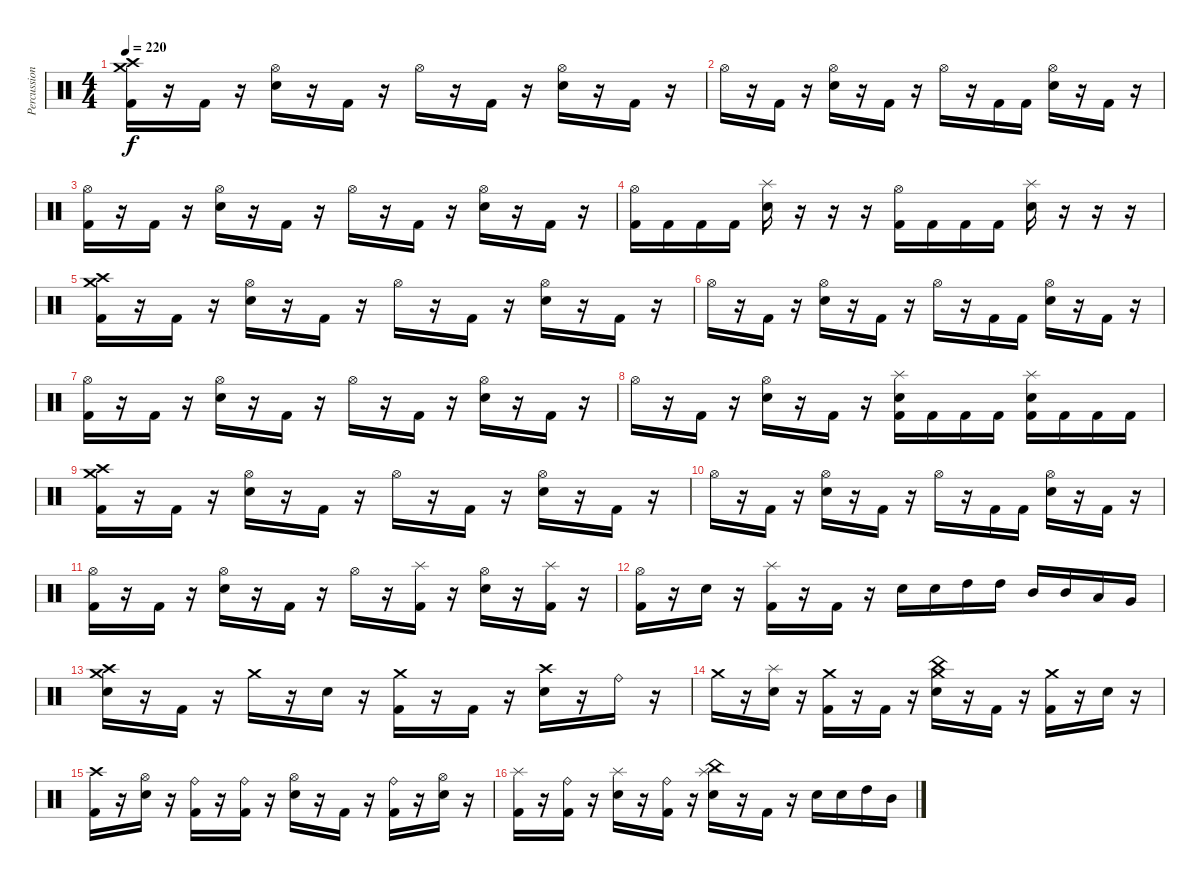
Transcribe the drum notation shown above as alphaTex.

\track ("Percussion" "Percussion") {instrument percussion}
\staff {score}
\articulation defaults
\ts (4 4)
\tempo 220
\clef neutral
\ks c
("Crash high (hit)" "Crash medium (hit)" "Kick (hit) 2").16{dy f} r.16 "Kick (hit) 2".16 r.16 ("Hi-Hat (open)" "Electric Snare (hit)").16 r.16 "Kick (hit) 2".16 r.16 "Hi-Hat (open)".16 r.16 "Kick (hit) 2".16 r.16 ("Hi-Hat (open)" "Electric Snare (hit)").16 r.16 "Kick (hit) 2".16 r.16 |
"Hi-Hat (open)".16 r.16 "Kick (hit) 2".16 r.16 ("Hi-Hat (open)" "Electric Snare (hit)").16 r.16 "Kick (hit) 2".16 r.16 "Hi-Hat (open)".16 r.16 "Kick (hit) 2".16 "Kick (hit) 2".16 ("Hi-Hat (open)" "Electric Snare (hit)").16 r.16 "Kick (hit) 2".16 r.16 |
("Hi-Hat (open)" "Kick (hit) 2").16 r.16 "Kick (hit) 2".16 r.16 ("Hi-Hat (open)" "Electric Snare (hit)").16 r.16 "Kick (hit) 2".16 r.16 "Hi-Hat (open)".16 r.16 "Kick (hit) 2".16 r.16 ("Hi-Hat (open)" "Electric Snare (hit)").16 r.16 "Kick (hit) 2".16 r.16 |
("Hi-Hat (open)" "Kick (hit) 2").16 "Kick (hit) 2".16 "Kick (hit) 2".16 "Kick (hit) 2".16 ("Splash (hit)" "Electric Snare (hit)").16 r.16 r.16 r.16 ("Hi-Hat (open)" "Kick (hit) 2").16 "Kick (hit) 2".16 "Kick (hit) 2".16 "Kick (hit) 2".16 ("Splash (hit)" "Electric Snare (hit)").16 r.16 r.16 r.16 |
("Crash high (hit)" "Crash medium (hit)" "Kick (hit) 2").16 r.16 "Kick (hit) 2".16 r.16 ("Hi-Hat (open)" "Electric Snare (hit)").16 r.16 "Kick (hit) 2".16 r.16 "Hi-Hat (open)".16 r.16 "Kick (hit) 2".16 r.16 ("Hi-Hat (open)" "Electric Snare (hit)").16 r.16 "Kick (hit) 2".16 r.16 |
"Hi-Hat (open)".16 r.16 "Kick (hit) 2".16 r.16 ("Hi-Hat (open)" "Electric Snare (hit)").16 r.16 "Kick (hit) 2".16 r.16 "Hi-Hat (open)".16 r.16 "Kick (hit) 2".16 "Kick (hit) 2".16 ("Hi-Hat (open)" "Electric Snare (hit)").16 r.16 "Kick (hit) 2".16 r.16 |
("Hi-Hat (open)" "Kick (hit) 2").16 r.16 "Kick (hit) 2".16 r.16 ("Hi-Hat (open)" "Electric Snare (hit)").16 r.16 "Kick (hit) 2".16 r.16 "Hi-Hat (open)".16 r.16 "Kick (hit) 2".16 r.16 ("Hi-Hat (open)" "Electric Snare (hit)").16 r.16 "Kick (hit) 2".16 r.16 |
"Hi-Hat (open)".16 r.16 "Kick (hit) 2".16 r.16 ("Hi-Hat (open)" "Electric Snare (hit)").16 r.16 "Kick (hit) 2".16 r.16 ("Splash (hit)" "Electric Snare (hit)" "Kick (hit) 2").16 "Kick (hit) 2".16 "Kick (hit) 2".16 "Kick (hit) 2".16 ("Splash (hit)" "Electric Snare (hit)" "Kick (hit) 2").16 "Kick (hit) 2".16 "Kick (hit) 2".16 "Kick (hit) 2".16 |
("Crash high (hit)" "Crash medium (hit)" "Kick (hit) 2").16 r.16 "Kick (hit) 2".16 r.16 ("Hi-Hat (open)" "Electric Snare (hit)").16 r.16 "Kick (hit) 2".16 r.16 "Hi-Hat (open)".16 r.16 "Kick (hit) 2".16 r.16 ("Hi-Hat (open)" "Electric Snare (hit)").16 r.16 "Kick (hit) 2".16 r.16 |
"Hi-Hat (open)".16 r.16 "Kick (hit) 2".16 r.16 ("Hi-Hat (open)" "Electric Snare (hit)").16 r.16 "Kick (hit) 2".16 r.16 "Hi-Hat (open)".16 r.16 "Kick (hit) 2".16 "Kick (hit) 2".16 ("Hi-Hat (open)" "Electric Snare (hit)").16 r.16 "Kick (hit) 2".16 r.16 |
("Hi-Hat (open)" "Kick (hit) 2").16 r.16 "Kick (hit) 2".16 r.16 ("Hi-Hat (open)" "Electric Snare (hit)").16 r.16 "Kick (hit) 2".16 r.16 "Hi-Hat (open)".16 r.16 ("Splash (hit)" "Kick (hit) 2").16 r.16 ("Hi-Hat (open)" "Electric Snare (hit)").16 r.16 ("Splash (hit)" "Kick (hit) 2").16 r.16 |
("Hi-Hat (open)" "Kick (hit) 2").16 r.16 "Electric Snare (hit)".16 r.16 ("Splash (hit)" "Kick (hit) 2").16 r.16 "Kick (hit) 2".16 r.16 "Electric Snare (hit)".16 "Electric Snare (hit)".16 "High Tom (hit)".16 "High Tom (hit)".16 "Mid Tom (hit)".16 "Mid Tom (hit)".16 "Low Tom (hit)".16 "Very Low Tom (hit)".16 |
("Crash high (hit)" "Crash medium (hit)" "Electric Snare (hit)").16 r.16 "Kick (hit) 2".16 r.16 "Crash medium (hit)".16 r.16 "Electric Snare (hit)".16 r.16 ("Crash medium (hit)" "Kick (hit) 2").16 r.16 "Kick (hit) 2".16 r.16 ("Crash high (hit)" "Electric Snare (hit)").16 r.16 "Ride (bell)".16 r.16 |
"Crash medium (hit)".16 r.16 ("Splash (hit)" "Electric Snare (hit)").16 r.16 ("Crash medium (hit)" "Kick (hit) 2").16 r.16 "Kick (hit) 2".16 r.16 ("Crash medium (hit)" "China (hit)" "Electric Snare (hit)").16 r.16 "Kick (hit) 2".16 r.16 ("Crash medium (hit)" "Kick (hit) 2").16 r.16 "Electric Snare (hit)".16 r.16 |
("Crash high (hit)" "Kick (hit) 2").16 r.16 ("Hi-Hat (open)" "Electric Snare (hit)").16 r.16 ("Ride (bell)" "Kick (hit) 2").16 r.16 ("Ride (bell)" "Kick (hit) 2").16 r.16 ("Hi-Hat (open)" "Electric Snare (hit)").16 r.16 "Kick (hit) 2".16 r.16 ("Ride (bell)" "Kick (hit) 2").16 r.16 ("Hi-Hat (open)" "Electric Snare (hit)").16 r.16 |
("Splash (hit)" "Kick (hit) 2").16 r.16 ("Ride (bell)" "Kick (hit) 2").16 r.16 ("Splash (hit)" "Electric Snare (hit)").16 r.16 ("Ride (bell)" "Kick (hit) 2").16 r.16 ("Splash (hit)" "China (hit)" "Electric Snare (hit)").16 r.16 "Kick (hit) 2".16 r.16 "Electric Snare (hit)".16 "Electric Snare (hit)".16 "High Tom (hit)".16 "Mid Tom (hit)".16
